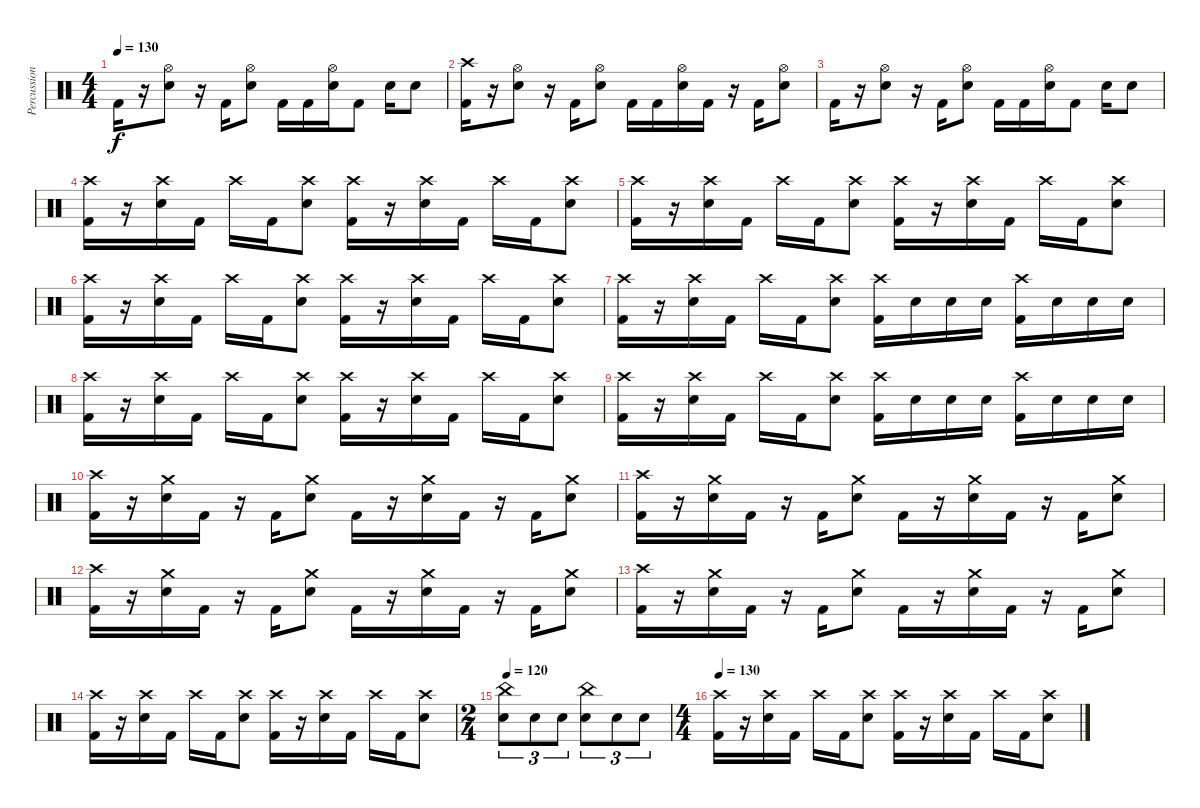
\track ("Percussion" "Percussion") {instrument percussion}
\staff {score}
\articulation defaults
\ts (4 4)
\tempo 130
\clef neutral
\ks c "Kick (hit) 2".16{dy f}
r.16 ("Electric Snare (hit)" "Hi-Hat (open)").8 r.16 "Kick (hit) 2".16 ("Electric Snare (hit)" "Hi-Hat (open)").8 "Kick (hit) 2".16 "Kick (hit) 2".16 ("Electric Snare (hit)" "Hi-Hat (open)").16 "Kick (hit) 2".8 "Electric Snare (hit)".16 "Electric Snare (hit)".8 |
("Kick (hit) 2" "Crash high (hit)").16 r.16 ("Electric Snare (hit)" "Hi-Hat (open)").8 r.16 "Kick (hit) 2".16 ("Electric Snare (hit)" "Hi-Hat (open)").8 "Kick (hit) 2".16 "Kick (hit) 2".16 ("Electric Snare (hit)" "Hi-Hat (open)").16 "Kick (hit) 2".16 r.16 "Kick (hit) 2".16 ("Electric Snare (hit)" "Hi-Hat (open)").8 |
"Kick (hit) 2".16 r.16 ("Electric Snare (hit)" "Hi-Hat (open)").8 r.16 "Kick (hit) 2".16 ("Electric Snare (hit)" "Hi-Hat (open)").8 "Kick (hit) 2".16 "Kick (hit) 2".16 ("Electric Snare (hit)" "Hi-Hat (open)").16 "Kick (hit) 2".8 "Electric Snare (hit)".16 "Electric Snare (hit)".8 |
("Kick (hit) 2" "Crash high (hit)").16 r.16 ("Electric Snare (hit)" "Crash high (hit)").16 "Kick (hit) 2".16 "Crash high (hit)".16 "Kick (hit) 2".16 ("Electric Snare (hit)" "Crash high (hit)").8 ("Kick (hit) 2" "Crash high (hit)").16 r.16 ("Electric Snare (hit)" "Crash high (hit)").16 "Kick (hit) 2".16 "Crash high (hit)".16 "Kick (hit) 2".16 ("Electric Snare (hit)" "Crash high (hit)").8 |
("Kick (hit) 2" "Crash high (hit)").16 r.16 ("Electric Snare (hit)" "Crash high (hit)").16 "Kick (hit) 2".16 "Crash high (hit)".16 "Kick (hit) 2".16 ("Electric Snare (hit)" "Crash high (hit)").8 ("Kick (hit) 2" "Crash high (hit)").16 r.16 ("Electric Snare (hit)" "Crash high (hit)").16 "Kick (hit) 2".16 "Crash high (hit)".16 "Kick (hit) 2".16 ("Electric Snare (hit)" "Crash high (hit)").8 |
("Kick (hit) 2" "Crash high (hit)").16 r.16 ("Electric Snare (hit)" "Crash high (hit)").16 "Kick (hit) 2".16 "Crash high (hit)".16 "Kick (hit) 2".16 ("Electric Snare (hit)" "Crash high (hit)").8 ("Kick (hit) 2" "Crash high (hit)").16 r.16 ("Electric Snare (hit)" "Crash high (hit)").16 "Kick (hit) 2".16 "Crash high (hit)".16 "Kick (hit) 2".16 ("Electric Snare (hit)" "Crash high (hit)").8 |
("Kick (hit) 2" "Crash high (hit)").16 r.16 ("Electric Snare (hit)" "Crash high (hit)").16 "Kick (hit) 2".16 "Crash high (hit)".16 "Kick (hit) 2".16 ("Electric Snare (hit)" "Crash high (hit)").8 ("Kick (hit) 2" "Crash high (hit)").16 "Electric Snare (hit)".16 "Electric Snare (hit)".16 "Electric Snare (hit)".16 ("Kick (hit) 2" "Crash high (hit)").16 "Electric Snare (hit)".16 "Electric Snare (hit)".16 "Electric Snare (hit)".16 |
("Kick (hit) 2" "Crash high (hit)").16 r.16 ("Electric Snare (hit)" "Crash high (hit)").16 "Kick (hit) 2".16 "Crash high (hit)".16 "Kick (hit) 2".16 ("Electric Snare (hit)" "Crash high (hit)").8 ("Kick (hit) 2" "Crash high (hit)").16 r.16 ("Electric Snare (hit)" "Crash high (hit)").16 "Kick (hit) 2".16 "Crash high (hit)".16 "Kick (hit) 2".16 ("Electric Snare (hit)" "Crash high (hit)").8 |
("Kick (hit) 2" "Crash high (hit)").16 r.16 ("Electric Snare (hit)" "Crash high (hit)").16 "Kick (hit) 2".16 "Crash high (hit)".16 "Kick (hit) 2".16 ("Electric Snare (hit)" "Crash high (hit)").8 ("Kick (hit) 2" "Crash high (hit)").16 "Electric Snare (hit)".16 "Electric Snare (hit)".16 "Electric Snare (hit)".16 ("Kick (hit) 2" "Crash high (hit)").16 "Electric Snare (hit)".16 "Electric Snare (hit)".16 "Electric Snare (hit)".16 |
("Kick (hit) 2" "Crash high (hit)").16 r.16 ("Electric Snare (hit)" "Crash medium (hit)").16 "Kick (hit) 2".16 r.16 "Kick (hit) 2".16 ("Electric Snare (hit)" "Crash medium (hit)").8 "Kick (hit) 2".16 r.16 ("Electric Snare (hit)" "Crash medium (hit)").16 "Kick (hit) 2".16 r.16 "Kick (hit) 2".16 ("Electric Snare (hit)" "Crash medium (hit)").8 |
("Kick (hit) 2" "Crash high (hit)").16 r.16 ("Electric Snare (hit)" "Crash medium (hit)").16 "Kick (hit) 2".16 r.16 "Kick (hit) 2".16 ("Electric Snare (hit)" "Crash medium (hit)").8 "Kick (hit) 2".16 r.16 ("Electric Snare (hit)" "Crash medium (hit)").16 "Kick (hit) 2".16 r.16 "Kick (hit) 2".16 ("Electric Snare (hit)" "Crash medium (hit)").8 |
("Kick (hit) 2" "Crash high (hit)").16 r.16 ("Electric Snare (hit)" "Crash medium (hit)").16 "Kick (hit) 2".16 r.16 "Kick (hit) 2".16 ("Electric Snare (hit)" "Crash medium (hit)").8 "Kick (hit) 2".16 r.16 ("Electric Snare (hit)" "Crash medium (hit)").16 "Kick (hit) 2".16 r.16 "Kick (hit) 2".16 ("Electric Snare (hit)" "Crash medium (hit)").8 |
("Kick (hit) 2" "Crash high (hit)").16 r.16 ("Electric Snare (hit)" "Crash medium (hit)").16 "Kick (hit) 2".16 r.16 "Kick (hit) 2".16 ("Electric Snare (hit)" "Crash medium (hit)").8 "Kick (hit) 2".16 r.16 ("Electric Snare (hit)" "Crash medium (hit)").16 "Kick (hit) 2".16 r.16 "Kick (hit) 2".16 ("Electric Snare (hit)" "Crash medium (hit)").8 |
("Kick (hit) 2" "Crash high (hit)").16 r.16 ("Electric Snare (hit)" "Crash high (hit)").16 "Kick (hit) 2".16 "Crash high (hit)".16 "Kick (hit) 2".16 ("Electric Snare (hit)" "Crash high (hit)").8 ("Kick (hit) 2" "Crash high (hit)").16 r.16 ("Electric Snare (hit)" "Crash high (hit)").16 "Kick (hit) 2".16 "Crash high (hit)".16 "Kick (hit) 2".16 ("Electric Snare (hit)" "Crash high (hit)").8 |
\ts (2 4)
\tempo 120
("Electric Snare (hit)" "China (hit)").8{tu (3 2)} "Electric Snare (hit)".8{tu (3 2)} "Electric Snare (hit)".8{tu (3 2)} ("Electric Snare (hit)" "China (hit)").8{tu (3 2)} "Electric Snare (hit)".8{tu (3 2)} "Electric Snare (hit)".8{tu (3 2)} |
\ts (4 4)
\tempo 130
("Kick (hit) 2" "Crash high (hit)").16 r.16 ("Electric Snare (hit)" "Crash high (hit)").16 "Kick (hit) 2".16 "Crash high (hit)".16 "Kick (hit) 2".16 ("Electric Snare (hit)" "Crash high (hit)").8 ("Kick (hit) 2" "Crash high (hit)").16 r.16 ("Electric Snare (hit)" "Crash high (hit)").16 "Kick (hit) 2".16 "Crash high (hit)".16 "Kick (hit) 2".16 ("Electric Snare (hit)" "Crash high (hit)").8
